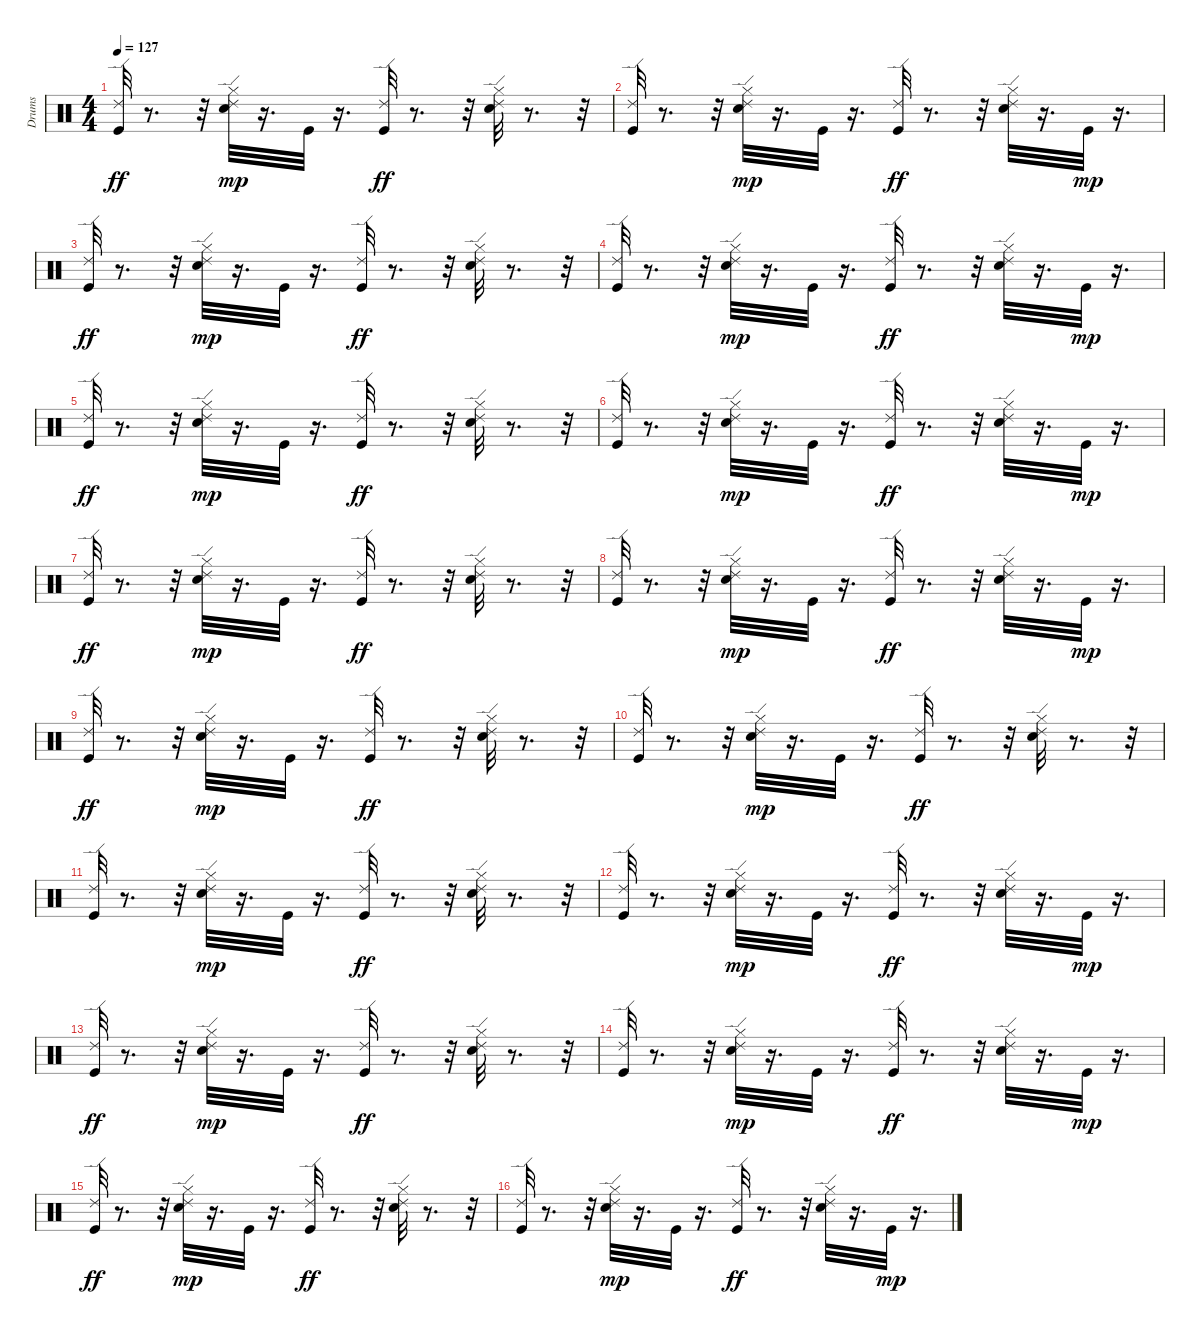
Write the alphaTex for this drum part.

\track (" Drums" " Drums") {instrument percussion}
\staff {score}
\articulation defaults
\ts (4 4)
\tempo 127
\clef neutral
\ks c
("Kick (hit)" "Ride (edge) 2").32{dy ff} r.8{d} r.32 ("Electric Snare (hit)" "Hi-Hat (closed)" "Ride (edge) 2").32{dy mp} r.16{d} "Kick (hit)".32 r.16{d} ("Kick (hit)" "Ride (edge) 2").32{dy ff} r.8{d} r.32 ("Electric Snare (hit)" "Hi-Hat (closed)" "Ride (edge) 2").32 r.8{d} r.32 |
("Kick (hit)" "Ride (edge) 2").32 r.8{d} r.32 ("Electric Snare (hit)" "Hi-Hat (closed)" "Ride (edge) 2").32{dy mp} r.16{d} "Kick (hit)".32 r.16{d} ("Kick (hit)" "Ride (edge) 2").32{dy ff} r.8{d} r.32 ("Electric Snare (hit)" "Hi-Hat (closed)" "Ride (edge) 2").32 r.16{d} "Kick (hit)".32{dy mp} r.16{d} |
("Kick (hit)" "Ride (edge) 2").32{dy ff} r.8{d} r.32 ("Electric Snare (hit)" "Hi-Hat (closed)" "Ride (edge) 2").32{dy mp} r.16{d} "Kick (hit)".32 r.16{d} ("Kick (hit)" "Ride (edge) 2").32{dy ff} r.8{d} r.32 ("Electric Snare (hit)" "Hi-Hat (closed)" "Ride (edge) 2").32 r.8{d} r.32 |
("Kick (hit)" "Ride (edge) 2").32 r.8{d} r.32 ("Electric Snare (hit)" "Hi-Hat (closed)" "Ride (edge) 2").32{dy mp} r.16{d} "Kick (hit)".32 r.16{d} ("Kick (hit)" "Ride (edge) 2").32{dy ff} r.8{d} r.32 ("Electric Snare (hit)" "Hi-Hat (closed)" "Ride (edge) 2").32 r.16{d} "Kick (hit)".32{dy mp} r.16{d} |
("Kick (hit)" "Ride (edge) 2").32{dy ff} r.8{d} r.32 ("Electric Snare (hit)" "Hi-Hat (closed)" "Ride (edge) 2").32{dy mp} r.16{d} "Kick (hit)".32 r.16{d} ("Kick (hit)" "Ride (edge) 2").32{dy ff} r.8{d} r.32 ("Electric Snare (hit)" "Hi-Hat (closed)" "Ride (edge) 2").32 r.8{d} r.32 |
("Kick (hit)" "Ride (edge) 2").32 r.8{d} r.32 ("Electric Snare (hit)" "Hi-Hat (closed)" "Ride (edge) 2").32{dy mp} r.16{d} "Kick (hit)".32 r.16{d} ("Kick (hit)" "Ride (edge) 2").32{dy ff} r.8{d} r.32 ("Electric Snare (hit)" "Hi-Hat (closed)" "Ride (edge) 2").32 r.16{d} "Kick (hit)".32{dy mp} r.16{d} |
("Kick (hit)" "Ride (edge) 2").32{dy ff} r.8{d} r.32 ("Electric Snare (hit)" "Hi-Hat (closed)" "Ride (edge) 2").32{dy mp} r.16{d} "Kick (hit)".32 r.16{d} ("Kick (hit)" "Ride (edge) 2").32{dy ff} r.8{d} r.32 ("Electric Snare (hit)" "Hi-Hat (closed)" "Ride (edge) 2").32 r.8{d} r.32 |
("Kick (hit)" "Ride (edge) 2").32 r.8{d} r.32 ("Electric Snare (hit)" "Hi-Hat (closed)" "Ride (edge) 2").32{dy mp} r.16{d} "Kick (hit)".32 r.16{d} ("Kick (hit)" "Ride (edge) 2").32{dy ff} r.8{d} r.32 ("Electric Snare (hit)" "Hi-Hat (closed)" "Ride (edge) 2").32 r.16{d} "Kick (hit)".32{dy mp} r.16{d} |
("Kick (hit)" "Ride (edge) 2").32{dy ff} r.8{d} r.32 ("Electric Snare (hit)" "Hi-Hat (closed)" "Ride (edge) 2").32{dy mp} r.16{d} "Kick (hit)".32 r.16{d} ("Kick (hit)" "Ride (edge) 2").32{dy ff} r.8{d} r.32 ("Electric Snare (hit)" "Hi-Hat (closed)" "Ride (edge) 2").32 r.8{d} r.32 |
("Ride (edge) 2" "Kick (hit)").32 r.8{d} r.32 ("Electric Snare (hit)" "Hi-Hat (closed)" "Ride (edge) 2").32{dy mp} r.16{d} "Kick (hit)".32 r.16{d} ("Kick (hit)" "Ride (edge) 2").32{dy ff} r.8{d} r.32 ("Electric Snare (hit)" "Hi-Hat (closed)" "Ride (edge) 2").32 r.8{d} r.32 |
("Kick (hit)" "Ride (edge) 2").32 r.8{d} r.32 ("Electric Snare (hit)" "Hi-Hat (closed)" "Ride (edge) 2").32{dy mp} r.16{d} "Kick (hit)".32 r.16{d} ("Kick (hit)" "Ride (edge) 2").32{dy ff} r.8{d} r.32 ("Electric Snare (hit)" "Hi-Hat (closed)" "Ride (edge) 2").32 r.8{d} r.32 |
("Kick (hit)" "Ride (edge) 2").32 r.8{d} r.32 ("Electric Snare (hit)" "Hi-Hat (closed)" "Ride (edge) 2").32{dy mp} r.16{d} "Kick (hit)".32 r.16{d} ("Kick (hit)" "Ride (edge) 2").32{dy ff} r.8{d} r.32 ("Electric Snare (hit)" "Hi-Hat (closed)" "Ride (edge) 2").32 r.16{d} "Kick (hit)".32{dy mp} r.16{d} |
("Kick (hit)" "Ride (edge) 2").32{dy ff} r.8{d} r.32 ("Electric Snare (hit)" "Hi-Hat (closed)" "Ride (edge) 2").32{dy mp} r.16{d} "Kick (hit)".32 r.16{d} ("Kick (hit)" "Ride (edge) 2").32{dy ff} r.8{d} r.32 ("Electric Snare (hit)" "Hi-Hat (closed)" "Ride (edge) 2").32 r.8{d} r.32 |
("Kick (hit)" "Ride (edge) 2").32 r.8{d} r.32 ("Electric Snare (hit)" "Hi-Hat (closed)" "Ride (edge) 2").32{dy mp} r.16{d} "Kick (hit)".32 r.16{d} ("Kick (hit)" "Ride (edge) 2").32{dy ff} r.8{d} r.32 ("Electric Snare (hit)" "Hi-Hat (closed)" "Ride (edge) 2").32 r.16{d} "Kick (hit)".32{dy mp} r.16{d} |
("Kick (hit)" "Ride (edge) 2").32{dy ff} r.8{d} r.32 ("Electric Snare (hit)" "Hi-Hat (closed)" "Ride (edge) 2").32{dy mp} r.16{d} "Kick (hit)".32 r.16{d} ("Kick (hit)" "Ride (edge) 2").32{dy ff} r.8{d} r.32 ("Electric Snare (hit)" "Hi-Hat (closed)" "Ride (edge) 2").32 r.8{d} r.32 |
("Kick (hit)" "Ride (edge) 2").32 r.8{d} r.32 ("Electric Snare (hit)" "Hi-Hat (closed)" "Ride (edge) 2").32{dy mp} r.16{d} "Kick (hit)".32 r.16{d} ("Kick (hit)" "Ride (edge) 2").32{dy ff} r.8{d} r.32 ("Electric Snare (hit)" "Hi-Hat (closed)" "Ride (edge) 2").32 r.16{d} "Kick (hit)".32{dy mp} r.16{d}
